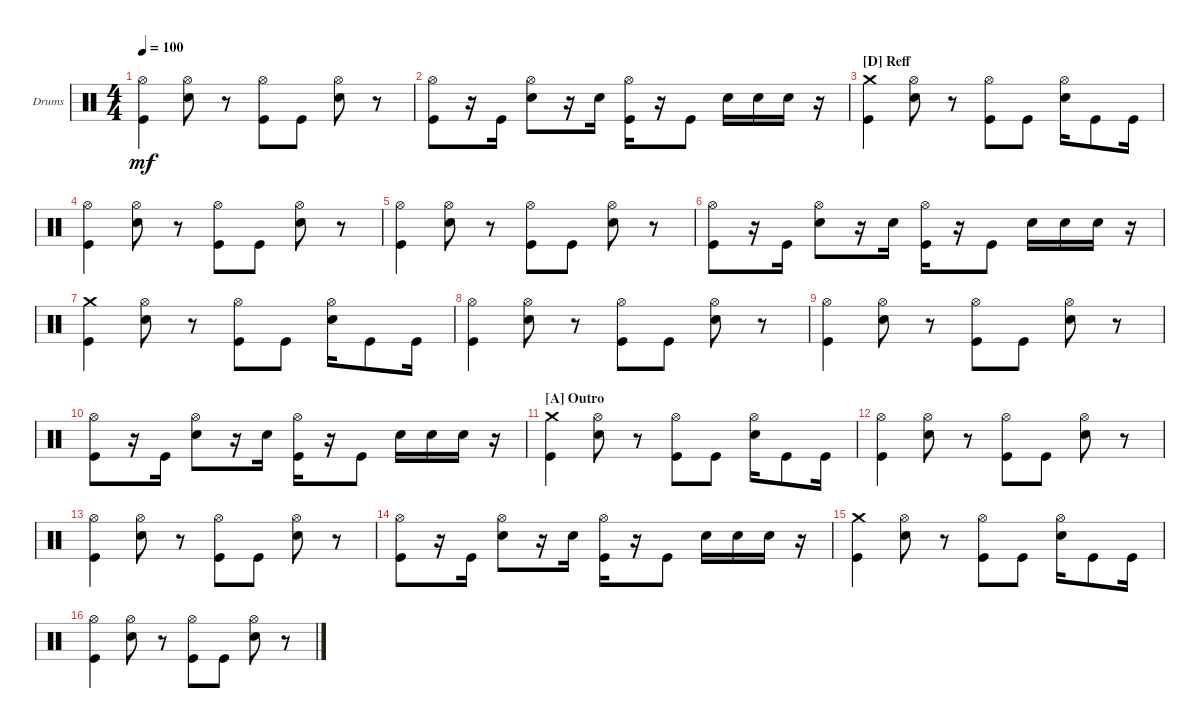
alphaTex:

\defaultSystemsLayout 4
\bracketExtendMode groupsimilarinstruments
\firstSystemTrackNameOrientation horizontal
\otherSystemsTrackNameOrientation horizontal
\track ("Drumkit" "Drums") {instrument percussion}
\staff {score}
\articulation defaults
\ts (4 4)
\tempo 100
\clef neutral
\ks c
("Kick (hit)" "Hi-Hat (open)").4{dy mf} ("Snare (hit) 2" "Hi-Hat (open)").8 r.8 ("Kick (hit)" "Hi-Hat (open)").8 "Kick (hit)".8 ("Snare (hit) 2" "Hi-Hat (open)").8 r.8 |
("Kick (hit)" "Hi-Hat (open)").8 r.16 "Kick (hit)".16 ("Snare (hit) 2" "Hi-Hat (open)").8 r.16 "Snare (hit) 2".16 ("Kick (hit)" "Hi-Hat (open)").16 r.16 "Kick (hit)".8 "Snare (hit) 2".16 "Snare (hit) 2".16 "Snare (hit) 2".16 r.16 |
\section ("D" "Reff")
("Kick (hit)" "Crash medium (hit)").4 ("Snare (hit) 2" "Hi-Hat (open)").8 r.8 ("Hi-Hat (open)" "Kick (hit)").8 "Kick (hit)".8 ("Snare (hit) 2" "Hi-Hat (open)").16 "Kick (hit)".8 "Kick (hit)".16 |
("Kick (hit)" "Hi-Hat (open)").4 ("Snare (hit) 2" "Hi-Hat (open)").8 r.8 ("Kick (hit)" "Hi-Hat (open)").8 "Kick (hit)".8 ("Snare (hit) 2" "Hi-Hat (open)").8 r.8 |
("Kick (hit)" "Hi-Hat (open)").4 ("Snare (hit) 2" "Hi-Hat (open)").8 r.8 ("Kick (hit)" "Hi-Hat (open)").8 "Kick (hit)".8 ("Snare (hit) 2" "Hi-Hat (open)").8 r.8 |
("Kick (hit)" "Hi-Hat (open)").8 r.16 "Kick (hit)".16 ("Snare (hit) 2" "Hi-Hat (open)").8 r.16 "Snare (hit) 2".16 ("Kick (hit)" "Hi-Hat (open)").16 r.16 "Kick (hit)".8 "Snare (hit) 2".16 "Snare (hit) 2".16 "Snare (hit) 2".16 r.16 |
("Kick (hit)" "Crash medium (hit)").4 ("Snare (hit) 2" "Hi-Hat (open)").8 r.8 ("Hi-Hat (open)" "Kick (hit)").8 "Kick (hit)".8 ("Snare (hit) 2" "Hi-Hat (open)").16 "Kick (hit)".8 "Kick (hit)".16 |
("Kick (hit)" "Hi-Hat (open)").4 ("Snare (hit) 2" "Hi-Hat (open)").8 r.8 ("Kick (hit)" "Hi-Hat (open)").8 "Kick (hit)".8 ("Snare (hit) 2" "Hi-Hat (open)").8 r.8 |
("Kick (hit)" "Hi-Hat (open)").4 ("Snare (hit) 2" "Hi-Hat (open)").8 r.8 ("Kick (hit)" "Hi-Hat (open)").8 "Kick (hit)".8 ("Snare (hit) 2" "Hi-Hat (open)").8 r.8 |
("Kick (hit)" "Hi-Hat (open)").8 r.16 "Kick (hit)".16 ("Snare (hit) 2" "Hi-Hat (open)").8 r.16 "Snare (hit) 2".16 ("Kick (hit)" "Hi-Hat (open)").16 r.16 "Kick (hit)".8 "Snare (hit) 2".16 "Snare (hit) 2".16 "Snare (hit) 2".16 r.16 |
\section ("A" "Outro")
("Kick (hit)" "Crash medium (hit)").4 ("Snare (hit) 2" "Hi-Hat (open)").8 r.8 ("Hi-Hat (open)" "Kick (hit)").8 "Kick (hit)".8 ("Snare (hit) 2" "Hi-Hat (open)").16 "Kick (hit)".8 "Kick (hit)".16 |
("Kick (hit)" "Hi-Hat (open)").4 ("Snare (hit) 2" "Hi-Hat (open)").8 r.8 ("Kick (hit)" "Hi-Hat (open)").8 "Kick (hit)".8 ("Snare (hit) 2" "Hi-Hat (open)").8 r.8 |
("Kick (hit)" "Hi-Hat (open)").4 ("Snare (hit) 2" "Hi-Hat (open)").8 r.8 ("Kick (hit)" "Hi-Hat (open)").8 "Kick (hit)".8 ("Snare (hit) 2" "Hi-Hat (open)").8 r.8 |
("Kick (hit)" "Hi-Hat (open)").8 r.16 "Kick (hit)".16 ("Snare (hit) 2" "Hi-Hat (open)").8 r.16 "Snare (hit) 2".16 ("Kick (hit)" "Hi-Hat (open)").16 r.16 "Kick (hit)".8 "Snare (hit) 2".16 "Snare (hit) 2".16 "Snare (hit) 2".16 r.16 |
("Kick (hit)" "Crash medium (hit)").4 ("Snare (hit) 2" "Hi-Hat (open)").8 r.8 ("Hi-Hat (open)" "Kick (hit)").8 "Kick (hit)".8 ("Snare (hit) 2" "Hi-Hat (open)").16 "Kick (hit)".8 "Kick (hit)".16 |
("Kick (hit)" "Hi-Hat (open)").4 ("Snare (hit) 2" "Hi-Hat (open)").8 r.8 ("Kick (hit)" "Hi-Hat (open)").8 "Kick (hit)".8 ("Snare (hit) 2" "Hi-Hat (open)").8 r.8
